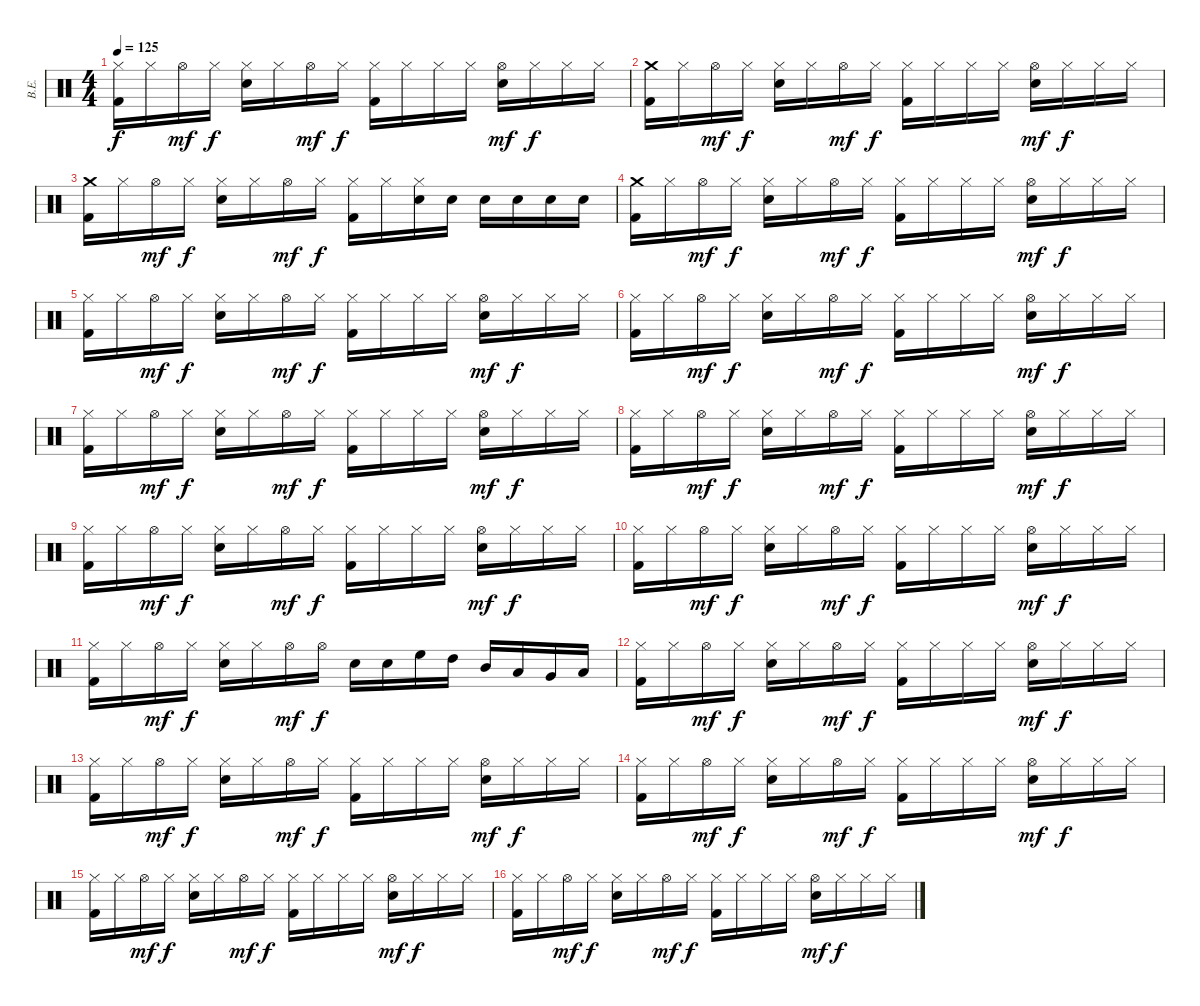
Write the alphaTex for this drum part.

\track ("В.Е." "В.Е.") {instrument percussion}
\staff {score}
\articulation defaults
\ts (4 4)
\tempo 125
\clef neutral
\ks c
("Hi-Hat (closed)" "Kick (hit) 2").16{dy f} "Hi-Hat (closed)".16 "Hi-Hat (open)".16{dy mf} "Hi-Hat (closed)".16{dy f} ("Hi-Hat (closed)" "Electric Snare (hit)").16 "Hi-Hat (closed)".16 "Hi-Hat (open)".16{dy mf} "Hi-Hat (closed)".16{dy f} ("Hi-Hat (closed)" "Kick (hit) 2").16 "Hi-Hat (closed)".16 "Hi-Hat (closed)".16 "Hi-Hat (closed)".16 ("Hi-Hat (open)" "Electric Snare (hit)").16{dy mf} "Hi-Hat (closed)".16{dy f} "Hi-Hat (closed)".16 "Hi-Hat (closed)".16 |
("Crash medium (hit)" "Kick (hit) 2").16 "Hi-Hat (closed)".16 "Hi-Hat (open)".16{dy mf} "Hi-Hat (closed)".16{dy f} ("Hi-Hat (closed)" "Electric Snare (hit)").16 "Hi-Hat (closed)".16 "Hi-Hat (open)".16{dy mf} "Hi-Hat (closed)".16{dy f} ("Hi-Hat (closed)" "Kick (hit) 2").16 "Hi-Hat (closed)".16 "Hi-Hat (closed)".16 "Hi-Hat (closed)".16 ("Hi-Hat (open)" "Electric Snare (hit)").16{dy mf} "Hi-Hat (closed)".16{dy f} "Hi-Hat (closed)".16 "Hi-Hat (closed)".16 |
("Crash medium (hit)" "Kick (hit) 2").16 "Hi-Hat (closed)".16 "Hi-Hat (open)".16{dy mf} "Hi-Hat (closed)".16{dy f} ("Hi-Hat (closed)" "Electric Snare (hit)").16 "Hi-Hat (closed)".16 "Hi-Hat (open)".16{dy mf} "Hi-Hat (closed)".16{dy f} ("Hi-Hat (closed)" "Kick (hit) 2").16 "Hi-Hat (closed)".16 ("Hi-Hat (closed)" "Electric Snare (hit)").16 "Electric Snare (hit)".16 "Electric Snare (hit)".16 "Electric Snare (hit)".16 "Electric Snare (hit)".16 "Electric Snare (hit)".16 |
("Crash medium (hit)" "Kick (hit) 2").16 "Hi-Hat (closed)".16 "Hi-Hat (open)".16{dy mf} "Hi-Hat (closed)".16{dy f} ("Hi-Hat (closed)" "Electric Snare (hit)").16 "Hi-Hat (closed)".16 "Hi-Hat (open)".16{dy mf} "Hi-Hat (closed)".16{dy f} ("Hi-Hat (closed)" "Kick (hit) 2").16 "Hi-Hat (closed)".16 "Hi-Hat (closed)".16 "Hi-Hat (closed)".16 ("Hi-Hat (open)" "Electric Snare (hit)").16{dy mf} "Hi-Hat (closed)".16{dy f} "Hi-Hat (closed)".16 "Hi-Hat (closed)".16 |
("Hi-Hat (closed)" "Kick (hit) 2").16 "Hi-Hat (closed)".16 "Hi-Hat (open)".16{dy mf} "Hi-Hat (closed)".16{dy f} ("Hi-Hat (closed)" "Electric Snare (hit)").16 "Hi-Hat (closed)".16 "Hi-Hat (open)".16{dy mf} "Hi-Hat (closed)".16{dy f} ("Hi-Hat (closed)" "Kick (hit) 2").16 "Hi-Hat (closed)".16 "Hi-Hat (closed)".16 "Hi-Hat (closed)".16 ("Hi-Hat (open)" "Electric Snare (hit)").16{dy mf} "Hi-Hat (closed)".16{dy f} "Hi-Hat (closed)".16 "Hi-Hat (closed)".16 |
("Hi-Hat (closed)" "Kick (hit) 2").16 "Hi-Hat (closed)".16 "Hi-Hat (open)".16{dy mf} "Hi-Hat (closed)".16{dy f} ("Hi-Hat (closed)" "Electric Snare (hit)").16 "Hi-Hat (closed)".16 "Hi-Hat (open)".16{dy mf} "Hi-Hat (closed)".16{dy f} ("Hi-Hat (closed)" "Kick (hit) 2").16 "Hi-Hat (closed)".16 "Hi-Hat (closed)".16 "Hi-Hat (closed)".16 ("Hi-Hat (open)" "Electric Snare (hit)").16{dy mf} "Hi-Hat (closed)".16{dy f} "Hi-Hat (closed)".16 "Hi-Hat (closed)".16 |
("Hi-Hat (closed)" "Kick (hit) 2").16 "Hi-Hat (closed)".16 "Hi-Hat (open)".16{dy mf} "Hi-Hat (closed)".16{dy f} ("Hi-Hat (closed)" "Electric Snare (hit)").16 "Hi-Hat (closed)".16 "Hi-Hat (open)".16{dy mf} "Hi-Hat (closed)".16{dy f} ("Hi-Hat (closed)" "Kick (hit) 2").16 "Hi-Hat (closed)".16 "Hi-Hat (closed)".16 "Hi-Hat (closed)".16 ("Hi-Hat (open)" "Electric Snare (hit)").16{dy mf} "Hi-Hat (closed)".16{dy f} "Hi-Hat (closed)".16 "Hi-Hat (closed)".16 |
("Hi-Hat (closed)" "Kick (hit) 2").16 "Hi-Hat (closed)".16 "Hi-Hat (open)".16{dy mf} "Hi-Hat (closed)".16{dy f} ("Hi-Hat (closed)" "Electric Snare (hit)").16 "Hi-Hat (closed)".16 "Hi-Hat (open)".16{dy mf} "Hi-Hat (closed)".16{dy f} ("Hi-Hat (closed)" "Kick (hit) 2").16 "Hi-Hat (closed)".16 "Hi-Hat (closed)".16 "Hi-Hat (closed)".16 ("Hi-Hat (open)" "Electric Snare (hit)").16{dy mf} "Hi-Hat (closed)".16{dy f} "Hi-Hat (closed)".16 "Hi-Hat (closed)".16 |
("Hi-Hat (closed)" "Kick (hit) 2").16 "Hi-Hat (closed)".16 "Hi-Hat (open)".16{dy mf} "Hi-Hat (closed)".16{dy f} ("Hi-Hat (closed)" "Electric Snare (hit)").16 "Hi-Hat (closed)".16 "Hi-Hat (open)".16{dy mf} "Hi-Hat (closed)".16{dy f} ("Hi-Hat (closed)" "Kick (hit) 2").16 "Hi-Hat (closed)".16 "Hi-Hat (closed)".16 "Hi-Hat (closed)".16 ("Hi-Hat (open)" "Electric Snare (hit)").16{dy mf} "Hi-Hat (closed)".16{dy f} "Hi-Hat (closed)".16 "Hi-Hat (closed)".16 |
("Hi-Hat (closed)" "Kick (hit) 2").16 "Hi-Hat (closed)".16 "Hi-Hat (open)".16{dy mf} "Hi-Hat (closed)".16{dy f} ("Hi-Hat (closed)" "Electric Snare (hit)").16 "Hi-Hat (closed)".16 "Hi-Hat (open)".16{dy mf} "Hi-Hat (closed)".16{dy f} ("Hi-Hat (closed)" "Kick (hit) 2").16 "Hi-Hat (closed)".16 "Hi-Hat (closed)".16 "Hi-Hat (closed)".16 ("Hi-Hat (open)" "Electric Snare (hit)").16{dy mf} "Hi-Hat (closed)".16{dy f} "Hi-Hat (closed)".16 "Hi-Hat (closed)".16 |
("Hi-Hat (closed)" "Kick (hit) 2").16 "Hi-Hat (closed)".16 "Hi-Hat (open)".16{dy mf} "Hi-Hat (closed)".16{dy f} ("Hi-Hat (closed)" "Electric Snare (hit)").16 "Hi-Hat (closed)".16 "Hi-Hat (open)".16{dy mf} "Hi-Hat (open)".16{dy f} "Electric Snare (hit)".16 "Electric Snare (hit)".16 "High Floor Tom (hit)".16 "High Tom (hit)".16 "Mid Tom (hit)".16 "Low Tom (hit)".16 "Very Low Tom (hit)".16 "Low Floor Tom (hit)".16 |
("Hi-Hat (closed)" "Kick (hit) 2").16 "Hi-Hat (closed)".16 "Hi-Hat (open)".16{dy mf} "Hi-Hat (closed)".16{dy f} ("Hi-Hat (closed)" "Electric Snare (hit)").16 "Hi-Hat (closed)".16 "Hi-Hat (open)".16{dy mf} "Hi-Hat (closed)".16{dy f} ("Hi-Hat (closed)" "Kick (hit) 2").16 "Hi-Hat (closed)".16 "Hi-Hat (closed)".16 "Hi-Hat (closed)".16 ("Hi-Hat (open)" "Electric Snare (hit)").16{dy mf} "Hi-Hat (closed)".16{dy f} "Hi-Hat (closed)".16 "Hi-Hat (closed)".16 |
("Hi-Hat (closed)" "Kick (hit) 2").16 "Hi-Hat (closed)".16 "Hi-Hat (open)".16{dy mf} "Hi-Hat (closed)".16{dy f} ("Hi-Hat (closed)" "Electric Snare (hit)").16 "Hi-Hat (closed)".16 "Hi-Hat (open)".16{dy mf} "Hi-Hat (closed)".16{dy f} ("Hi-Hat (closed)" "Kick (hit) 2").16 "Hi-Hat (closed)".16 "Hi-Hat (closed)".16 "Hi-Hat (closed)".16 ("Hi-Hat (open)" "Electric Snare (hit)").16{dy mf} "Hi-Hat (closed)".16{dy f} "Hi-Hat (closed)".16 "Hi-Hat (closed)".16 |
("Hi-Hat (closed)" "Kick (hit) 2").16 "Hi-Hat (closed)".16 "Hi-Hat (open)".16{dy mf} "Hi-Hat (closed)".16{dy f} ("Hi-Hat (closed)" "Electric Snare (hit)").16 "Hi-Hat (closed)".16 "Hi-Hat (open)".16{dy mf} "Hi-Hat (closed)".16{dy f} ("Hi-Hat (closed)" "Kick (hit) 2").16 "Hi-Hat (closed)".16 "Hi-Hat (closed)".16 "Hi-Hat (closed)".16 ("Hi-Hat (open)" "Electric Snare (hit)").16{dy mf} "Hi-Hat (closed)".16{dy f} "Hi-Hat (closed)".16 "Hi-Hat (closed)".16 |
("Hi-Hat (closed)" "Kick (hit) 2").16 "Hi-Hat (closed)".16 "Hi-Hat (open)".16{dy mf} "Hi-Hat (closed)".16{dy f} ("Hi-Hat (closed)" "Electric Snare (hit)").16 "Hi-Hat (closed)".16 "Hi-Hat (open)".16{dy mf} "Hi-Hat (closed)".16{dy f} ("Hi-Hat (closed)" "Kick (hit) 2").16 "Hi-Hat (closed)".16 "Hi-Hat (closed)".16 "Hi-Hat (closed)".16 ("Hi-Hat (open)" "Electric Snare (hit)").16{dy mf} "Hi-Hat (closed)".16{dy f} "Hi-Hat (closed)".16 "Hi-Hat (closed)".16 |
("Hi-Hat (closed)" "Kick (hit) 2").16 "Hi-Hat (closed)".16 "Hi-Hat (open)".16{dy mf} "Hi-Hat (closed)".16{dy f} ("Hi-Hat (closed)" "Electric Snare (hit)").16 "Hi-Hat (closed)".16 "Hi-Hat (open)".16{dy mf} "Hi-Hat (closed)".16{dy f} ("Hi-Hat (closed)" "Kick (hit) 2").16 "Hi-Hat (closed)".16 "Hi-Hat (closed)".16 "Hi-Hat (closed)".16 ("Hi-Hat (open)" "Electric Snare (hit)").16{dy mf} "Hi-Hat (closed)".16{dy f} "Hi-Hat (closed)".16 "Hi-Hat (closed)".16
